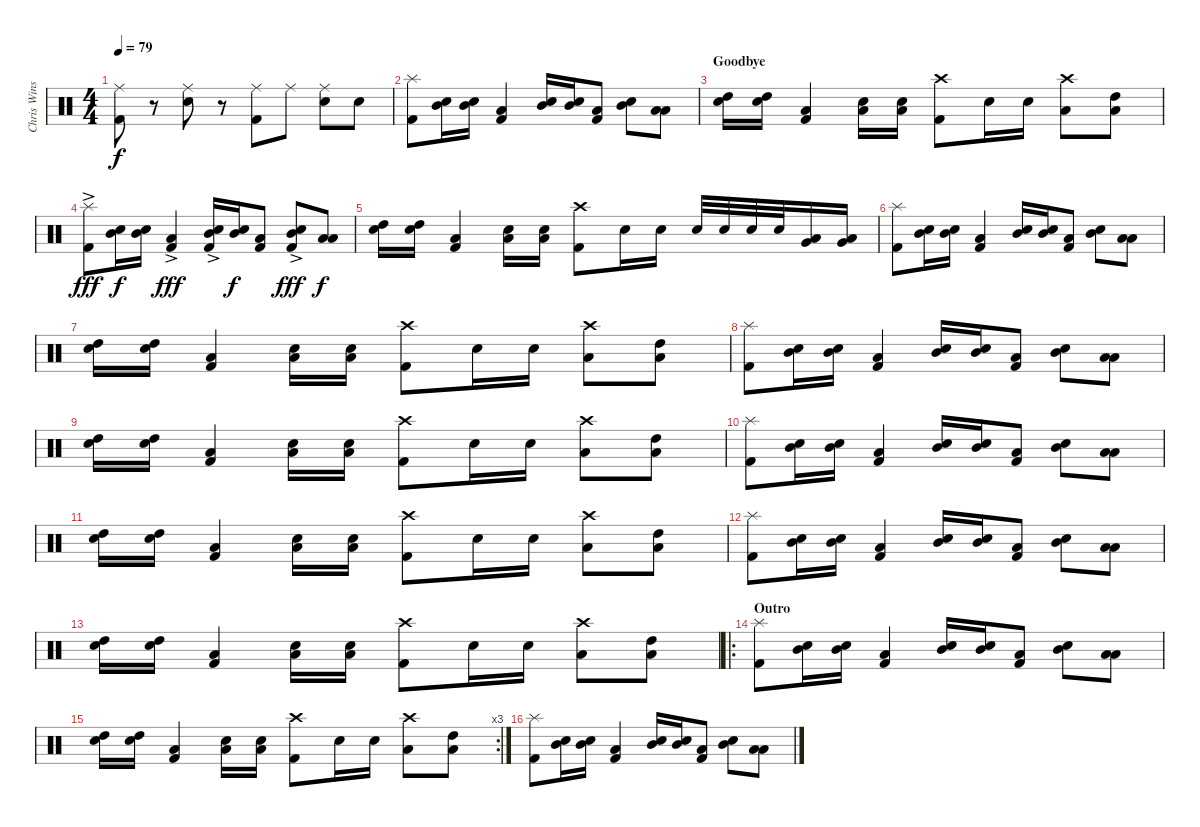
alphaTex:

\track ("Chris Winship (Drums)" "Chris Wins") {instrument percussion}
\staff {score}
\articulation defaults
\ts (4 4)
\tempo 79
\clef neutral
\ks c
("Ride (middle)" "Kick (hit) 2").8{dy f} r.8 ("Ride (middle)" "Snare (hit) 2").8 r.8 ("Ride (middle)" "Kick (hit) 2").8 "Ride (middle)".8 ("Ride (middle)" "Snare (hit) 2").8 "Snare (hit) 2".8 |
("Splash (hit)" "Kick (hit) 2").8 ("Mid Tom (hit)" "Snare (hit) 2").16 ("Mid Tom (hit)" "Snare (hit) 2").16 ("Low Floor Tom (hit)" "Kick (hit) 2").4 ("Mid Tom (hit)" "Snare (hit) 2").16 ("Mid Tom (hit)" "Snare (hit) 2").16 ("Low Floor Tom (hit)" "Kick (hit) 2").8 ("Mid Tom (hit)" "Snare (hit) 2").8 ("Low Tom (hit)" "Low Floor Tom (hit)").8 |
\section ("" "Goodbye")
("High Tom (hit)" "Snare (hit) 2").16 ("High Tom (hit)" "Snare (hit) 2").16 ("Low Floor Tom (hit)" "Kick (hit) 2").4 ("Low Tom (hit)" "Snare (hit) 2").16 ("Low Tom (hit)" "Snare (hit) 2").16 ("Crash high (hit)" "Kick (hit) 2").8 "Snare (hit) 2".16 "Snare (hit) 2".16 ("Crash high (hit)" "Low Floor Tom (hit)").8 ("Low Floor Tom (hit)" "High Tom (hit)").8 |
("Splash (hit)" "Kick (hit) 2"{ac}).8{dy fff} ("Mid Tom (hit)" "Snare (hit) 2").16{dy f} ("Mid Tom (hit)" "Snare (hit) 2").16 ("Low Floor Tom (hit)" "Kick (hit) 2"{ac}).4{dy fff} ("Kick (hit) 2"{ac} "Mid Tom (hit)" "Snare (hit) 2").16 ("Mid Tom (hit)" "Snare (hit) 2").16{dy f} ("Low Floor Tom (hit)" "Kick (hit) 2").8 ("Kick (hit) 2"{ac} "Mid Tom (hit)" "Snare (hit) 2").8{dy fff} ("Low Tom (hit)" "Low Floor Tom (hit)").8{dy f} |
("High Tom (hit)" "Snare (hit) 2").16 ("High Tom (hit)" "Snare (hit) 2").16 ("Low Floor Tom (hit)" "Kick (hit) 2").4 ("Low Tom (hit)" "Snare (hit) 2").16 ("Low Tom (hit)" "Snare (hit) 2").16 ("Crash high (hit)" "Kick (hit) 2").8 "Snare (hit) 2".16 "Snare (hit) 2".16 "Snare (hit) 2".32 "Snare (hit) 2".32 "Snare (hit) 2".32 "Snare (hit) 2".32 ("Low Floor Tom (hit)" "Very Low Tom (hit)").16 ("Low Floor Tom (hit)" "Very Low Tom (hit)").16 |
("Splash (hit)" "Kick (hit) 2").8 ("Mid Tom (hit)" "Snare (hit) 2").16 ("Mid Tom (hit)" "Snare (hit) 2").16 ("Low Floor Tom (hit)" "Kick (hit) 2").4 ("Mid Tom (hit)" "Snare (hit) 2").16 ("Mid Tom (hit)" "Snare (hit) 2").16 ("Low Floor Tom (hit)" "Kick (hit) 2").8 ("Mid Tom (hit)" "Snare (hit) 2").8 ("Low Tom (hit)" "Low Floor Tom (hit)").8 |
("High Tom (hit)" "Snare (hit) 2").16 ("High Tom (hit)" "Snare (hit) 2").16 ("Low Floor Tom (hit)" "Kick (hit) 2").4 ("Low Tom (hit)" "Snare (hit) 2").16 ("Low Tom (hit)" "Snare (hit) 2").16 ("Crash high (hit)" "Kick (hit) 2").8 "Snare (hit) 2".16 "Snare (hit) 2".16 ("Crash high (hit)" "Low Floor Tom (hit)").8 ("Low Floor Tom (hit)" "High Tom (hit)").8 |
("Splash (hit)" "Kick (hit) 2").8 ("Mid Tom (hit)" "Snare (hit) 2").16 ("Mid Tom (hit)" "Snare (hit) 2").16 ("Low Floor Tom (hit)" "Kick (hit) 2").4 ("Mid Tom (hit)" "Snare (hit) 2").16 ("Mid Tom (hit)" "Snare (hit) 2").16 ("Low Floor Tom (hit)" "Kick (hit) 2").8 ("Mid Tom (hit)" "Snare (hit) 2").8 ("Low Tom (hit)" "Low Floor Tom (hit)").8 |
("High Tom (hit)" "Snare (hit) 2").16 ("High Tom (hit)" "Snare (hit) 2").16 ("Low Floor Tom (hit)" "Kick (hit) 2").4 ("Low Tom (hit)" "Snare (hit) 2").16 ("Low Tom (hit)" "Snare (hit) 2").16 ("Crash high (hit)" "Kick (hit) 2").8 "Snare (hit) 2".16 "Snare (hit) 2".16 ("Crash high (hit)" "Low Floor Tom (hit)").8 ("Low Floor Tom (hit)" "High Tom (hit)").8 |
("Splash (hit)" "Kick (hit) 2").8 ("Mid Tom (hit)" "Snare (hit) 2").16 ("Mid Tom (hit)" "Snare (hit) 2").16 ("Low Floor Tom (hit)" "Kick (hit) 2").4 ("Mid Tom (hit)" "Snare (hit) 2").16 ("Mid Tom (hit)" "Snare (hit) 2").16 ("Low Floor Tom (hit)" "Kick (hit) 2").8 ("Mid Tom (hit)" "Snare (hit) 2").8 ("Low Tom (hit)" "Low Floor Tom (hit)").8 |
("High Tom (hit)" "Snare (hit) 2").16 ("High Tom (hit)" "Snare (hit) 2").16 ("Low Floor Tom (hit)" "Kick (hit) 2").4 ("Low Tom (hit)" "Snare (hit) 2").16 ("Low Tom (hit)" "Snare (hit) 2").16 ("Crash high (hit)" "Kick (hit) 2").8 "Snare (hit) 2".16 "Snare (hit) 2".16 ("Crash high (hit)" "Low Floor Tom (hit)").8 ("Low Floor Tom (hit)" "High Tom (hit)").8 |
("Splash (hit)" "Kick (hit) 2").8 ("Mid Tom (hit)" "Snare (hit) 2").16 ("Mid Tom (hit)" "Snare (hit) 2").16 ("Low Floor Tom (hit)" "Kick (hit) 2").4 ("Mid Tom (hit)" "Snare (hit) 2").16 ("Mid Tom (hit)" "Snare (hit) 2").16 ("Low Floor Tom (hit)" "Kick (hit) 2").8 ("Mid Tom (hit)" "Snare (hit) 2").8 ("Low Tom (hit)" "Low Floor Tom (hit)").8 |
("High Tom (hit)" "Snare (hit) 2").16 ("High Tom (hit)" "Snare (hit) 2").16 ("Low Floor Tom (hit)" "Kick (hit) 2").4 ("Low Tom (hit)" "Snare (hit) 2").16 ("Low Tom (hit)" "Snare (hit) 2").16 ("Crash high (hit)" "Kick (hit) 2").8 "Snare (hit) 2".16 "Snare (hit) 2".16 ("Crash high (hit)" "Low Floor Tom (hit)").8 ("Low Floor Tom (hit)" "High Tom (hit)").8 |
\ro
\section ("" "Outro")
("Splash (hit)" "Kick (hit) 2").8 ("Mid Tom (hit)" "Snare (hit) 2").16 ("Mid Tom (hit)" "Snare (hit) 2").16 ("Low Floor Tom (hit)" "Kick (hit) 2").4 ("Mid Tom (hit)" "Snare (hit) 2").16 ("Mid Tom (hit)" "Snare (hit) 2").16 ("Low Floor Tom (hit)" "Kick (hit) 2").8 ("Mid Tom (hit)" "Snare (hit) 2").8 ("Low Tom (hit)" "Low Floor Tom (hit)").8 |
\rc 3
("High Tom (hit)" "Snare (hit) 2").16 ("High Tom (hit)" "Snare (hit) 2").16 ("Low Floor Tom (hit)" "Kick (hit) 2").4 ("Low Tom (hit)" "Snare (hit) 2").16 ("Low Tom (hit)" "Snare (hit) 2").16 ("Crash high (hit)" "Kick (hit) 2").8 "Snare (hit) 2".16 "Snare (hit) 2".16 ("Crash high (hit)" "Low Floor Tom (hit)").8 ("Low Floor Tom (hit)" "High Tom (hit)").8 |
("Splash (hit)" "Kick (hit) 2").8 ("Mid Tom (hit)" "Snare (hit) 2").16 ("Mid Tom (hit)" "Snare (hit) 2").16 ("Low Floor Tom (hit)" "Kick (hit) 2").4 ("Mid Tom (hit)" "Snare (hit) 2").16 ("Mid Tom (hit)" "Snare (hit) 2").16 ("Low Floor Tom (hit)" "Kick (hit) 2").8 ("Mid Tom (hit)" "Snare (hit) 2").8 ("Low Tom (hit)" "Low Floor Tom (hit)").8
